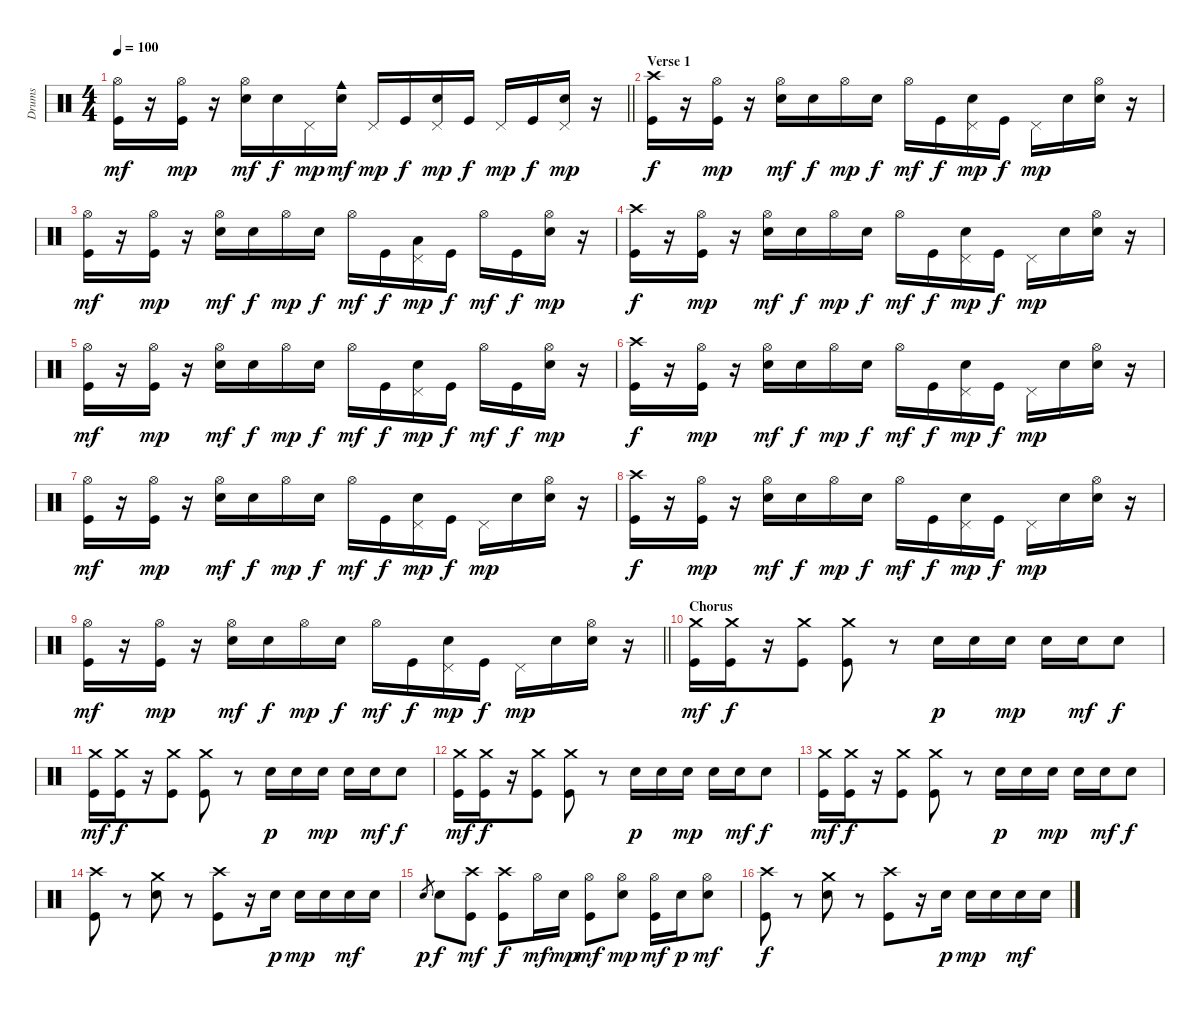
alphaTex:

\track ("Drums" "Drums") {instrument percussion}
\staff {score}
\articulation defaults
\ts (4 4)
\tempo 100
\clef neutral
\barLineRight lightlight
\ks c
("Hi-Hat (open)" "Kick (hit)").16{dy mf} r.16 ("Hi-Hat (open)" "Kick (hit)").16{dy mp} r.16 ("Hi-Hat (open)" "Snare (hit) 2").16{dy mf} "Snare (hit) 2".16{dy f} "Pedal Hi-Hat (hit)".16{dy mp} ("Cowbell medium (hit)" "Snare (hit) 2").16{dy mf} "Pedal Hi-Hat (hit)".16{dy mp} "Kick (hit)".16{dy f} ("Pedal Hi-Hat (hit)" "Snare (hit) 2").16{dy mp} "Kick (hit)".16{dy f} "Pedal Hi-Hat (hit)".16{dy mp} "Kick (hit)".16{dy f} ("Pedal Hi-Hat (hit)" "Snare (hit) 2").16{dy mp} r.16 |
\section ("" "Verse 1")
("Crash high (hit)" "Kick (hit)").16{dy f} r.16 ("Hi-Hat (open)" "Kick (hit)").16{dy mp} r.16 ("Hi-Hat (open)" "Snare (hit) 2").16{dy mf} "Snare (hit) 2".16{dy f} "Hi-Hat (open)".16{dy mp} "Snare (hit) 2".16{dy f} "Hi-Hat (open)".16{dy mf} "Kick (hit)".16{dy f} ("Pedal Hi-Hat (hit)" "Snare (hit) 2").16{dy mp} "Kick (hit)".16{dy f} "Pedal Hi-Hat (hit)".16{dy mp} "Snare (hit) 2".16 ("Hi-Hat (open)" "Snare (hit) 2").16 r.16 |
("Hi-Hat (open)" "Kick (hit)").16{dy mf} r.16 ("Hi-Hat (open)" "Kick (hit)").16{dy mp} r.16 ("Hi-Hat (open)" "Snare (hit) 2").16{dy mf} "Snare (hit) 2".16{dy f} "Hi-Hat (open)".16{dy mp} "Snare (hit) 2".16{dy f} "Hi-Hat (open)".16{dy mf} "Kick (hit)".16{dy f} ("Pedal Hi-Hat (hit)" "Low Tom (hit)").16{dy mp} "Kick (hit)".16{dy f} "Hi-Hat (open)".16{dy mf} "Kick (hit)".16{dy f} ("Hi-Hat (open)" "Snare (hit) 2").16{dy mp} r.16 |
("Crash high (hit)" "Kick (hit)").16{dy f} r.16 ("Hi-Hat (open)" "Kick (hit)").16{dy mp} r.16 ("Hi-Hat (open)" "Snare (hit) 2").16{dy mf} "Snare (hit) 2".16{dy f} "Hi-Hat (open)".16{dy mp} "Snare (hit) 2".16{dy f} "Hi-Hat (open)".16{dy mf} "Kick (hit)".16{dy f} ("Pedal Hi-Hat (hit)" "Snare (hit) 2").16{dy mp} "Kick (hit)".16{dy f} "Pedal Hi-Hat (hit)".16{dy mp} "Snare (hit) 2".16 ("Hi-Hat (open)" "Snare (hit) 2").16 r.16 |
("Hi-Hat (open)" "Kick (hit)").16{dy mf} r.16 ("Hi-Hat (open)" "Kick (hit)").16{dy mp} r.16 ("Hi-Hat (open)" "Snare (hit) 2").16{dy mf} "Snare (hit) 2".16{dy f} "Hi-Hat (open)".16{dy mp} "Snare (hit) 2".16{dy f} "Hi-Hat (open)".16{dy mf} "Kick (hit)".16{dy f} ("Pedal Hi-Hat (hit)" "Snare (hit) 2").16{dy mp} "Kick (hit)".16{dy f} "Hi-Hat (open)".16{dy mf} "Kick (hit)".16{dy f} ("Hi-Hat (open)" "Snare (hit) 2").16{dy mp} r.16 |
("Crash high (hit)" "Kick (hit)").16{dy f} r.16 ("Hi-Hat (open)" "Kick (hit)").16{dy mp} r.16 ("Hi-Hat (open)" "Snare (hit) 2").16{dy mf} "Snare (hit) 2".16{dy f} "Hi-Hat (open)".16{dy mp} "Snare (hit) 2".16{dy f} "Hi-Hat (open)".16{dy mf} "Kick (hit)".16{dy f} ("Pedal Hi-Hat (hit)" "Snare (hit) 2").16{dy mp} "Kick (hit)".16{dy f} "Pedal Hi-Hat (hit)".16{dy mp} "Snare (hit) 2".16 ("Hi-Hat (open)" "Snare (hit) 2").16 r.16 |
("Hi-Hat (open)" "Kick (hit)").16{dy mf} r.16 ("Hi-Hat (open)" "Kick (hit)").16{dy mp} r.16 ("Hi-Hat (open)" "Snare (hit) 2").16{dy mf} "Snare (hit) 2".16{dy f} "Hi-Hat (open)".16{dy mp} "Snare (hit) 2".16{dy f} "Hi-Hat (open)".16{dy mf} "Kick (hit)".16{dy f} ("Pedal Hi-Hat (hit)" "Snare (hit) 2").16{dy mp} "Kick (hit)".16{dy f} "Pedal Hi-Hat (hit)".16{dy mp} "Snare (hit) 2".16 ("Hi-Hat (open)" "Snare (hit) 2").16 r.16 |
("Crash high (hit)" "Kick (hit)").16{dy f} r.16 ("Hi-Hat (open)" "Kick (hit)").16{dy mp} r.16 ("Hi-Hat (open)" "Snare (hit) 2").16{dy mf} "Snare (hit) 2".16{dy f} "Hi-Hat (open)".16{dy mp} "Snare (hit) 2".16{dy f} "Hi-Hat (open)".16{dy mf} "Kick (hit)".16{dy f} ("Pedal Hi-Hat (hit)" "Snare (hit) 2").16{dy mp} "Kick (hit)".16{dy f} "Pedal Hi-Hat (hit)".16{dy mp} "Snare (hit) 2".16 ("Hi-Hat (open)" "Snare (hit) 2").16 r.16 |
\barLineRight lightlight
("Hi-Hat (open)" "Kick (hit)").16{dy mf} r.16 ("Hi-Hat (open)" "Kick (hit)").16{dy mp} r.16 ("Hi-Hat (open)" "Snare (hit) 2").16{dy mf} "Snare (hit) 2".16{dy f} "Hi-Hat (open)".16{dy mp} "Snare (hit) 2".16{dy f} "Hi-Hat (open)".16{dy mf} "Kick (hit)".16{dy f} ("Pedal Hi-Hat (hit)" "Snare (hit) 2").16{dy mp} "Kick (hit)".16{dy f} "Pedal Hi-Hat (hit)".16{dy mp} "Snare (hit) 2".16 ("Hi-Hat (open)" "Snare (hit) 2").16 r.16 |
\section ("" "Chorus")
("Crash medium (hit)" "Kick (hit)").16{dy mf} ("Crash medium (hit)" "Kick (hit)").16{dy f} r.16 ("Crash medium (hit)" "Kick (hit)").8 ("Crash medium (hit)" "Kick (hit)").8 r.8 "Snare (hit) 2".16{dy p} "Snare (hit) 2".16 "Snare (hit) 2".16{dy mp} "Snare (hit) 2".16 "Snare (hit) 2".16{dy mf} "Snare (hit) 2".8{dy f} |
("Crash medium (hit)" "Kick (hit)").16{dy mf} ("Crash medium (hit)" "Kick (hit)").16{dy f} r.16 ("Crash medium (hit)" "Kick (hit)").8 ("Crash medium (hit)" "Kick (hit)").8 r.8 "Snare (hit) 2".16{dy p} "Snare (hit) 2".16 "Snare (hit) 2".16{dy mp} "Snare (hit) 2".16 "Snare (hit) 2".16{dy mf} "Snare (hit) 2".8{dy f} |
("Crash medium (hit)" "Kick (hit)").16{dy mf} ("Crash medium (hit)" "Kick (hit)").16{dy f} r.16 ("Crash medium (hit)" "Kick (hit)").8 ("Crash medium (hit)" "Kick (hit)").8 r.8 "Snare (hit) 2".16{dy p} "Snare (hit) 2".16 "Snare (hit) 2".16{dy mp} "Snare (hit) 2".16 "Snare (hit) 2".16{dy mf} "Snare (hit) 2".8{dy f} |
("Crash medium (hit)" "Kick (hit)").16{dy mf} ("Crash medium (hit)" "Kick (hit)").16{dy f} r.16 ("Crash medium (hit)" "Kick (hit)").8 ("Crash medium (hit)" "Kick (hit)").8 r.8 "Snare (hit) 2".16{dy p} "Snare (hit) 2".16 "Snare (hit) 2".16{dy mp} "Snare (hit) 2".16 "Snare (hit) 2".16{dy mf} "Snare (hit) 2".8{dy f} |
("Crash high (hit)" "Kick (hit)").8 r.8 ("Crash medium (hit)" "Snare (hit) 2").8 r.8 ("Crash high (hit)" "Kick (hit)").8 r.16 "Snare (hit) 2".16{dy p} "Snare (hit) 2".16{dy mp} "Snare (hit) 2".16 "Snare (hit) 2".16{dy mf} "Snare (hit) 2".16 |
"Snare (hit) 2".8{gr dy p} "Snare (hit) 2".8{dy f} ("Crash high (hit)" "Kick (hit)").8{dy mf} ("Crash high (hit)" "Kick (hit)").8{dy f} "Hi-Hat (open)".16{dy mf} "Snare (hit) 2".16{dy mp} ("Hi-Hat (open)" "Kick (hit)").8{dy mf} ("Hi-Hat (open)" "Snare (hit) 2").8{dy mp} ("Hi-Hat (open)" "Kick (hit)").16{dy mf} "Snare (hit) 2".16{dy p} ("Hi-Hat (open)" "Snare (hit) 2").8{dy mf} |
("Crash high (hit)" "Kick (hit)").8{dy f} r.8 ("Crash medium (hit)" "Snare (hit) 2").8 r.8 ("Crash high (hit)" "Kick (hit)").8 r.16 "Snare (hit) 2".16{dy p} "Snare (hit) 2".16{dy mp} "Snare (hit) 2".16 "Snare (hit) 2".16{dy mf} "Snare (hit) 2".16
